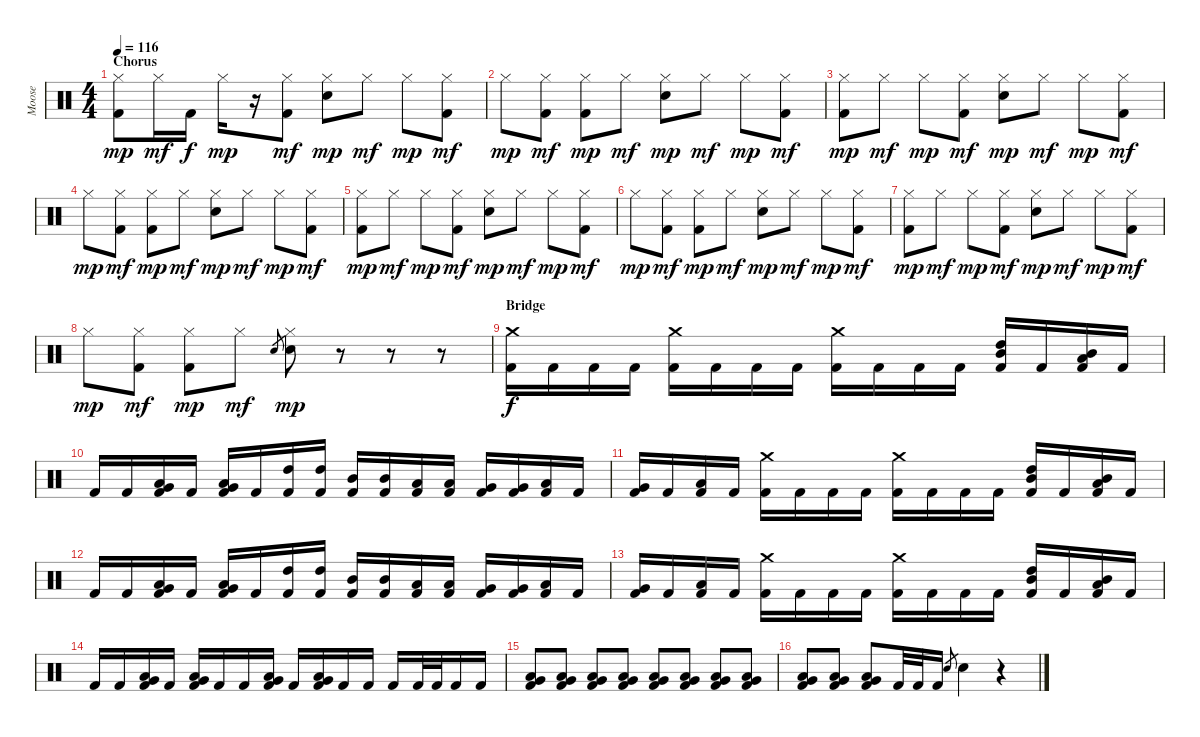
\track ("Moose" "Moose") {instrument percussion}
\staff {score}
\articulation defaults
\ts (4 4)
\section ("" "Chorus")
\tempo 116
\clef neutral
\ks c
("Kick (hit) 2" "Hi-Hat (closed)").8{dy mp} "Hi-Hat (closed)".16{dy mf} "Kick (hit) 2".16{dy f} "Hi-Hat (closed)".16{dy mp} r.16 ("Kick (hit) 2" "Hi-Hat (closed)").8{dy mf} ("Snare (hit) 2" "Hi-Hat (closed)").8{dy mp} "Hi-Hat (closed)".8{dy mf} "Hi-Hat (closed)".8{dy mp} ("Kick (hit) 2" "Hi-Hat (closed)").8{dy mf} |
"Hi-Hat (closed)".8{dy mp} ("Kick (hit) 2" "Hi-Hat (closed)").8{dy mf} ("Kick (hit) 2" "Hi-Hat (closed)").8{dy mp} "Hi-Hat (closed)".8{dy mf} ("Snare (hit) 2" "Hi-Hat (closed)").8{dy mp} "Hi-Hat (closed)".8{dy mf} "Hi-Hat (closed)".8{dy mp} ("Kick (hit) 2" "Hi-Hat (closed)").8{dy mf} |
("Kick (hit) 2" "Hi-Hat (closed)").8{dy mp} "Hi-Hat (closed)".8{dy mf} "Hi-Hat (closed)".8{dy mp} ("Kick (hit) 2" "Hi-Hat (closed)").8{dy mf} ("Snare (hit) 2" "Hi-Hat (closed)").8{dy mp} "Hi-Hat (closed)".8{dy mf} "Hi-Hat (closed)".8{dy mp} ("Kick (hit) 2" "Hi-Hat (closed)").8{dy mf} |
"Hi-Hat (closed)".8{dy mp} ("Kick (hit) 2" "Hi-Hat (closed)").8{dy mf} ("Kick (hit) 2" "Hi-Hat (closed)").8{dy mp} "Hi-Hat (closed)".8{dy mf} ("Snare (hit) 2" "Hi-Hat (closed)").8{dy mp} "Hi-Hat (closed)".8{dy mf} "Hi-Hat (closed)".8{dy mp} ("Kick (hit) 2" "Hi-Hat (closed)").8{dy mf} |
("Kick (hit) 2" "Hi-Hat (closed)").8{dy mp} "Hi-Hat (closed)".8{dy mf} "Hi-Hat (closed)".8{dy mp} ("Kick (hit) 2" "Hi-Hat (closed)").8{dy mf} ("Snare (hit) 2" "Hi-Hat (closed)").8{dy mp} "Hi-Hat (closed)".8{dy mf} "Hi-Hat (closed)".8{dy mp} ("Kick (hit) 2" "Hi-Hat (closed)").8{dy mf} |
"Hi-Hat (closed)".8{dy mp} ("Kick (hit) 2" "Hi-Hat (closed)").8{dy mf} ("Kick (hit) 2" "Hi-Hat (closed)").8{dy mp} "Hi-Hat (closed)".8{dy mf} ("Snare (hit) 2" "Hi-Hat (closed)").8{dy mp} "Hi-Hat (closed)".8{dy mf} "Hi-Hat (closed)".8{dy mp} ("Kick (hit) 2" "Hi-Hat (closed)").8{dy mf} |
("Kick (hit) 2" "Hi-Hat (closed)").8{dy mp} "Hi-Hat (closed)".8{dy mf} "Hi-Hat (closed)".8{dy mp} ("Kick (hit) 2" "Hi-Hat (closed)").8{dy mf} ("Snare (hit) 2" "Hi-Hat (closed)").8{dy mp} "Hi-Hat (closed)".8{dy mf} "Hi-Hat (closed)".8{dy mp} ("Kick (hit) 2" "Hi-Hat (closed)").8{dy mf} |
"Hi-Hat (closed)".8{dy mp} ("Kick (hit) 2" "Hi-Hat (closed)").8{dy mf} ("Kick (hit) 2" "Hi-Hat (closed)").8{dy mp} "Hi-Hat (closed)".8{dy mf} "Snare (hit) 2".8{gr} ("Snare (hit) 2" "Hi-Hat (closed)").8{dy mp} r.8 r.8 r.8 |
\section ("" "Bridge")
("Kick (hit) 2" "Crash medium (hit)").16{dy f} "Kick (hit) 2".16 "Kick (hit) 2".16 "Kick (hit) 2".16 ("Kick (hit) 2" "Crash medium (hit)").16 "Kick (hit) 2".16 "Kick (hit) 2".16 "Kick (hit) 2".16 ("Kick (hit) 2" "Crash medium (hit)").16 "Kick (hit) 2".16 "Kick (hit) 2".16 "Kick (hit) 2".16 ("Kick (hit) 2" "High Tom (hit)" "Mid Tom (hit)").16 "Kick (hit) 2".16 ("Kick (hit) 2" "Mid Tom (hit)" "Low Tom (hit)").16 "Kick (hit) 2".16 |
"Kick (hit) 2".16 "Kick (hit) 2".16 ("Kick (hit) 2" "Low Tom (hit)" "Very Low Tom (hit)").16 "Kick (hit) 2".16 ("Kick (hit) 2" "Very Low Tom (hit)" "Low Floor Tom (hit)").16 "Kick (hit) 2".16 ("Kick (hit) 2" "High Tom (hit)").16 ("Kick (hit) 2" "High Tom (hit)").16 ("Kick (hit) 2" "Mid Tom (hit)").16 ("Kick (hit) 2" "Mid Tom (hit)").16 ("Kick (hit) 2" "Low Tom (hit)").16 ("Kick (hit) 2" "Low Tom (hit)").16 ("Kick (hit) 2" "Very Low Tom (hit)").16 ("Kick (hit) 2" "Very Low Tom (hit)").16 ("Kick (hit) 2" "Low Floor Tom (hit)").16 "Kick (hit) 2".16 |
("Kick (hit) 2" "Very Low Tom (hit)").16 "Kick (hit) 2".16 ("Kick (hit) 2" "Low Floor Tom (hit)").16 "Kick (hit) 2".16 ("Kick (hit) 2" "Crash medium (hit)").16 "Kick (hit) 2".16 "Kick (hit) 2".16 "Kick (hit) 2".16 ("Kick (hit) 2" "Crash medium (hit)").16 "Kick (hit) 2".16 "Kick (hit) 2".16 "Kick (hit) 2".16 ("Kick (hit) 2" "High Tom (hit)" "Mid Tom (hit)").16 "Kick (hit) 2".16 ("Kick (hit) 2" "Mid Tom (hit)" "Low Tom (hit)").16 "Kick (hit) 2".16 |
"Kick (hit) 2".16 "Kick (hit) 2".16 ("Kick (hit) 2" "Low Tom (hit)" "Very Low Tom (hit)").16 "Kick (hit) 2".16 ("Kick (hit) 2" "Very Low Tom (hit)" "Low Floor Tom (hit)").16 "Kick (hit) 2".16 ("Kick (hit) 2" "High Tom (hit)").16 ("Kick (hit) 2" "High Tom (hit)").16 ("Kick (hit) 2" "Mid Tom (hit)").16 ("Kick (hit) 2" "Mid Tom (hit)").16 ("Kick (hit) 2" "Low Tom (hit)").16 ("Kick (hit) 2" "Low Tom (hit)").16 ("Kick (hit) 2" "Very Low Tom (hit)").16 ("Kick (hit) 2" "Very Low Tom (hit)").16 ("Kick (hit) 2" "Low Floor Tom (hit)").16 "Kick (hit) 2".16 |
("Kick (hit) 2" "Very Low Tom (hit)").16 "Kick (hit) 2".16 ("Kick (hit) 2" "Low Floor Tom (hit)").16 "Kick (hit) 2".16 ("Kick (hit) 2" "Crash medium (hit)").16 "Kick (hit) 2".16 "Kick (hit) 2".16 "Kick (hit) 2".16 ("Kick (hit) 2" "Crash medium (hit)").16 "Kick (hit) 2".16 "Kick (hit) 2".16 "Kick (hit) 2".16 ("Kick (hit) 2" "High Tom (hit)" "Mid Tom (hit)").16 "Kick (hit) 2".16 ("Kick (hit) 2" "Mid Tom (hit)" "Low Tom (hit)").16 "Kick (hit) 2".16 |
"Kick (hit) 2".16 "Kick (hit) 2".16 ("Kick (hit) 2" "Low Tom (hit)" "Very Low Tom (hit)").16 "Kick (hit) 2".16 ("Kick (hit) 2" "Very Low Tom (hit)" "Low Floor Tom (hit)").16 "Kick (hit) 2".16 "Kick (hit) 2".16 ("Kick (hit) 2" "Low Tom (hit)" "Very Low Tom (hit)").16 "Kick (hit) 2".16 ("Kick (hit) 2" "Very Low Tom (hit)" "Low Floor Tom (hit)").16 "Kick (hit) 2".16 "Kick (hit) 2".16 "Kick (hit) 2".16 "Kick (hit) 2".32 "Kick (hit) 2".32 "Kick (hit) 2".16 "Kick (hit) 2".16 |
("Kick (hit) 2" "Low Tom (hit)" "Very Low Tom (hit)").8 ("Kick (hit) 2" "Low Tom (hit)" "Very Low Tom (hit)").8 ("Kick (hit) 2" "Low Tom (hit)" "Very Low Tom (hit)").8 ("Kick (hit) 2" "Low Tom (hit)" "Very Low Tom (hit)").8 ("Kick (hit) 2" "Low Tom (hit)" "Very Low Tom (hit)").8 ("Kick (hit) 2" "Low Tom (hit)" "Very Low Tom (hit)").8 ("Kick (hit) 2" "Low Tom (hit)" "Very Low Tom (hit)").8 ("Kick (hit) 2" "Low Tom (hit)" "Very Low Tom (hit)").8 |
("Kick (hit) 2" "Low Tom (hit)" "Very Low Tom (hit)").8 ("Kick (hit) 2" "Low Tom (hit)" "Very Low Tom (hit)").8 ("Kick (hit) 2" "Low Tom (hit)" "Very Low Tom (hit)").8 "Kick (hit) 2".32 "Kick (hit) 2".32 "Kick (hit) 2".16 "Snare (hit) 2".8{gr} "Snare (hit) 2".4 r.4
